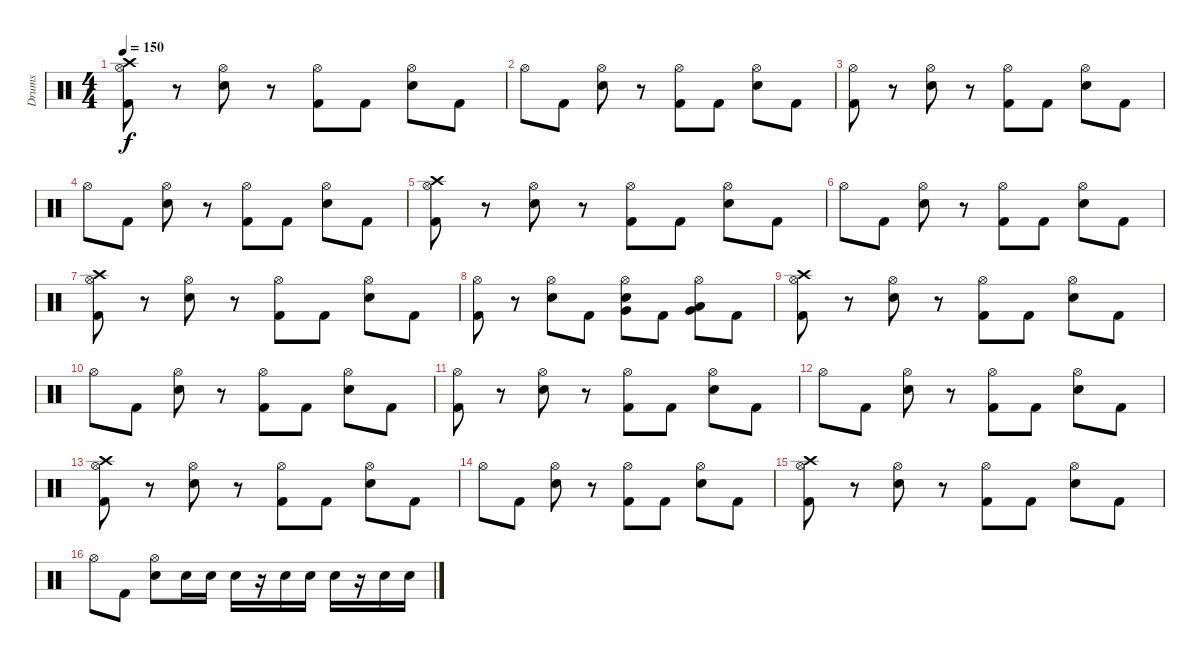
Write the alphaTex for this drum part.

\track ("Drums" "Drums") {instrument percussion}
\staff {score}
\articulation defaults
\ts (4 4)
\tempo 150
\clef neutral
\ks c
("Crash high (hit)" "Hi-Hat (open)" "Kick (hit) 2").8{dy f} r.8 ("Hi-Hat (open)" "Electric Snare (hit)").8 r.8 ("Hi-Hat (open)" "Kick (hit) 2").8 "Kick (hit) 2".8 ("Hi-Hat (open)" "Electric Snare (hit)").8 "Kick (hit) 2".8 |
"Hi-Hat (open)".8 "Kick (hit) 2".8 ("Hi-Hat (open)" "Electric Snare (hit)").8 r.8 ("Hi-Hat (open)" "Kick (hit) 2").8 "Kick (hit) 2".8 ("Hi-Hat (open)" "Electric Snare (hit)").8 "Kick (hit) 2".8 |
("Hi-Hat (open)" "Kick (hit) 2").8 r.8 ("Hi-Hat (open)" "Electric Snare (hit)").8 r.8 ("Hi-Hat (open)" "Kick (hit) 2").8 "Kick (hit) 2".8 ("Hi-Hat (open)" "Electric Snare (hit)").8 "Kick (hit) 2".8 |
"Hi-Hat (open)".8 "Kick (hit) 2".8 ("Hi-Hat (open)" "Electric Snare (hit)").8 r.8 ("Hi-Hat (open)" "Kick (hit) 2").8 "Kick (hit) 2".8 ("Hi-Hat (open)" "Electric Snare (hit)").8 "Kick (hit) 2".8 |
("Crash high (hit)" "Hi-Hat (open)" "Kick (hit) 2").8 r.8 ("Hi-Hat (open)" "Electric Snare (hit)").8 r.8 ("Hi-Hat (open)" "Kick (hit) 2").8 "Kick (hit) 2".8 ("Hi-Hat (open)" "Electric Snare (hit)").8 "Kick (hit) 2".8 |
"Hi-Hat (open)".8 "Kick (hit) 2".8 ("Hi-Hat (open)" "Electric Snare (hit)").8 r.8 ("Hi-Hat (open)" "Kick (hit) 2").8 "Kick (hit) 2".8 ("Hi-Hat (open)" "Electric Snare (hit)").8 "Kick (hit) 2".8 |
("Crash high (hit)" "Hi-Hat (open)" "Kick (hit) 2").8 r.8 ("Hi-Hat (open)" "Electric Snare (hit)").8 r.8 ("Hi-Hat (open)" "Kick (hit) 2").8 "Kick (hit) 2".8 ("Hi-Hat (open)" "Electric Snare (hit)").8 "Kick (hit) 2".8 |
("Hi-Hat (open)" "Kick (hit) 2").8 r.8 ("Hi-Hat (open)" "Electric Snare (hit)").8 "Kick (hit) 2".8 ("Hi-Hat (open)" "Electric Snare (hit)" "Very Low Tom (hit)").8 "Kick (hit) 2".8 ("Hi-Hat (open)" "Low Tom (hit)" "Very Low Tom (hit)").8 "Kick (hit) 2".8 |
("Crash high (hit)" "Hi-Hat (open)" "Kick (hit) 2").8 r.8 ("Hi-Hat (open)" "Electric Snare (hit)").8 r.8 ("Hi-Hat (open)" "Kick (hit) 2").8 "Kick (hit) 2".8 ("Hi-Hat (open)" "Electric Snare (hit)").8 "Kick (hit) 2".8 |
"Hi-Hat (open)".8 "Kick (hit) 2".8 ("Hi-Hat (open)" "Electric Snare (hit)").8 r.8 ("Hi-Hat (open)" "Kick (hit) 2").8 "Kick (hit) 2".8 ("Hi-Hat (open)" "Electric Snare (hit)").8 "Kick (hit) 2".8 |
("Hi-Hat (open)" "Kick (hit) 2").8 r.8 ("Hi-Hat (open)" "Electric Snare (hit)").8 r.8 ("Hi-Hat (open)" "Kick (hit) 2").8 "Kick (hit) 2".8 ("Hi-Hat (open)" "Electric Snare (hit)").8 "Kick (hit) 2".8 |
"Hi-Hat (open)".8 "Kick (hit) 2".8 ("Hi-Hat (open)" "Electric Snare (hit)").8 r.8 ("Hi-Hat (open)" "Kick (hit) 2").8 "Kick (hit) 2".8 ("Hi-Hat (open)" "Electric Snare (hit)").8 "Kick (hit) 2".8 |
("Crash high (hit)" "Hi-Hat (open)" "Kick (hit) 2").8 r.8 ("Hi-Hat (open)" "Electric Snare (hit)").8 r.8 ("Hi-Hat (open)" "Kick (hit) 2").8 "Kick (hit) 2".8 ("Hi-Hat (open)" "Electric Snare (hit)").8 "Kick (hit) 2".8 |
"Hi-Hat (open)".8 "Kick (hit) 2".8 ("Hi-Hat (open)" "Electric Snare (hit)").8 r.8 ("Hi-Hat (open)" "Kick (hit) 2").8 "Kick (hit) 2".8 ("Hi-Hat (open)" "Electric Snare (hit)").8 "Kick (hit) 2".8 |
("Crash high (hit)" "Hi-Hat (open)" "Kick (hit) 2").8 r.8 ("Hi-Hat (open)" "Electric Snare (hit)").8 r.8 ("Hi-Hat (open)" "Kick (hit) 2").8 "Kick (hit) 2".8 ("Hi-Hat (open)" "Electric Snare (hit)").8 "Kick (hit) 2".8 |
"Hi-Hat (open)".8 "Kick (hit) 2".8 ("Hi-Hat (open)" "Electric Snare (hit)").8 "Electric Snare (hit)".16 "Electric Snare (hit)".16 "Electric Snare (hit)".16 r.16 "Electric Snare (hit)".16 "Electric Snare (hit)".16 "Electric Snare (hit)".16 r.16 "Electric Snare (hit)".16 "Electric Snare (hit)".16
